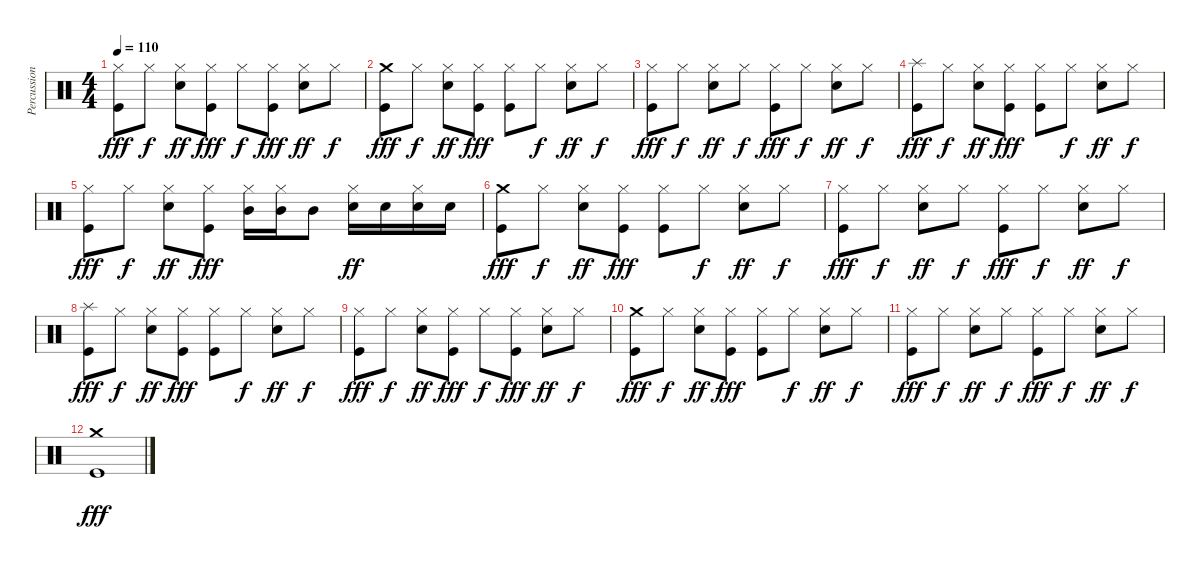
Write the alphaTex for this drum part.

\track ("Percussion" "Percussion") {instrument percussion}
\staff {score}
\articulation defaults
\ts (4 4)
\tempo 110
\clef neutral
\ks c
("Kick (hit)" "Hi-Hat (closed)").8{dy fff} "Hi-Hat (closed)".8{dy f} ("Snare (hit) 2" "Hi-Hat (closed)").8{dy ff} ("Kick (hit)" "Hi-Hat (closed)").8{dy fff} "Hi-Hat (closed)".8{dy f} ("Kick (hit)" "Hi-Hat (closed)").8{dy fff} ("Snare (hit) 2" "Hi-Hat (closed)").8{dy ff} "Hi-Hat (closed)".8{dy f} |
("Kick (hit)" "Crash medium (hit)").8{dy fff} "Hi-Hat (closed)".8{dy f} ("Snare (hit) 2" "Hi-Hat (closed)").8{dy ff} ("Kick (hit)" "Hi-Hat (closed)").8{dy fff} ("Kick (hit)" "Hi-Hat (closed)").8 "Hi-Hat (closed)".8{dy f} ("Snare (hit) 2" "Hi-Hat (closed)").8{dy ff} "Hi-Hat (closed)".8{dy f} |
("Kick (hit)" "Hi-Hat (closed)").8{dy fff} "Hi-Hat (closed)".8{dy f} ("Snare (hit) 2" "Hi-Hat (closed)").8{dy ff} "Hi-Hat (closed)".8{dy f} ("Kick (hit)" "Hi-Hat (closed)").8{dy fff} "Hi-Hat (closed)".8{dy f} ("Snare (hit) 2" "Hi-Hat (closed)").8{dy ff} "Hi-Hat (closed)".8{dy f} |
("Kick (hit)" "Splash (hit)").8{dy fff} "Hi-Hat (closed)".8{dy f} ("Snare (hit) 2" "Hi-Hat (closed)").8{dy ff} ("Kick (hit)" "Hi-Hat (closed)").8{dy fff} ("Kick (hit)" "Hi-Hat (closed)").8 "Hi-Hat (closed)".8{dy f} ("Snare (hit) 2" "Hi-Hat (closed)").8{dy ff} "Hi-Hat (closed)".8{dy f} |
("Kick (hit)" "Hi-Hat (closed)").8{dy fff} "Hi-Hat (closed)".8{dy f} ("Snare (hit) 2" "Hi-Hat (closed)").8{dy ff} ("Kick (hit)" "Hi-Hat (closed)").8{dy fff} ("Mid Tom (hit)" "Hi-Hat (closed)").16 ("Mid Tom (hit)" "Hi-Hat (closed)").16 "Mid Tom (hit)".8 ("Snare (hit) 2" "Hi-Hat (closed)").16{dy ff} "Snare (hit) 2".16 ("Snare (hit) 2" "Hi-Hat (closed)").16 "Snare (hit) 2".16 |
("Kick (hit)" "Crash medium (hit)").8{dy fff} "Hi-Hat (closed)".8{dy f} ("Snare (hit) 2" "Hi-Hat (closed)").8{dy ff} ("Kick (hit)" "Hi-Hat (closed)").8{dy fff} ("Kick (hit)" "Hi-Hat (closed)").8 "Hi-Hat (closed)".8{dy f} ("Snare (hit) 2" "Hi-Hat (closed)").8{dy ff} "Hi-Hat (closed)".8{dy f} |
("Kick (hit)" "Hi-Hat (closed)").8{dy fff} "Hi-Hat (closed)".8{dy f} ("Snare (hit) 2" "Hi-Hat (closed)").8{dy ff} "Hi-Hat (closed)".8{dy f} ("Kick (hit)" "Hi-Hat (closed)").8{dy fff} "Hi-Hat (closed)".8{dy f} ("Snare (hit) 2" "Hi-Hat (closed)").8{dy ff} "Hi-Hat (closed)".8{dy f} |
("Kick (hit)" "Splash (hit)").8{dy fff} "Hi-Hat (closed)".8{dy f} ("Snare (hit) 2" "Hi-Hat (closed)").8{dy ff} ("Kick (hit)" "Hi-Hat (closed)").8{dy fff} ("Kick (hit)" "Hi-Hat (closed)").8 "Hi-Hat (closed)".8{dy f} ("Snare (hit) 2" "Hi-Hat (closed)").8{dy ff} "Hi-Hat (closed)".8{dy f} |
("Kick (hit)" "Hi-Hat (closed)").8{dy fff} "Hi-Hat (closed)".8{dy f} ("Snare (hit) 2" "Hi-Hat (closed)").8{dy ff} ("Kick (hit)" "Hi-Hat (closed)").8{dy fff} "Hi-Hat (closed)".8{dy f} ("Kick (hit)" "Hi-Hat (closed)").8{dy fff} ("Snare (hit) 2" "Hi-Hat (closed)").8{dy ff} "Hi-Hat (closed)".8{dy f} |
("Kick (hit)" "Crash medium (hit)").8{dy fff} "Hi-Hat (closed)".8{dy f} ("Snare (hit) 2" "Hi-Hat (closed)").8{dy ff} ("Kick (hit)" "Hi-Hat (closed)").8{dy fff} ("Kick (hit)" "Hi-Hat (closed)").8 "Hi-Hat (closed)".8{dy f} ("Snare (hit) 2" "Hi-Hat (closed)").8{dy ff} "Hi-Hat (closed)".8{dy f} |
("Kick (hit)" "Hi-Hat (closed)").8{dy fff} "Hi-Hat (closed)".8{dy f} ("Snare (hit) 2" "Hi-Hat (closed)").8{dy ff} "Hi-Hat (closed)".8{dy f} ("Kick (hit)" "Hi-Hat (closed)").8{dy fff} "Hi-Hat (closed)".8{dy f} ("Snare (hit) 2" "Hi-Hat (closed)").8{dy ff} "Hi-Hat (closed)".8{dy f} |
("Kick (hit)" "Crash medium (hit)").1{dy fff}
